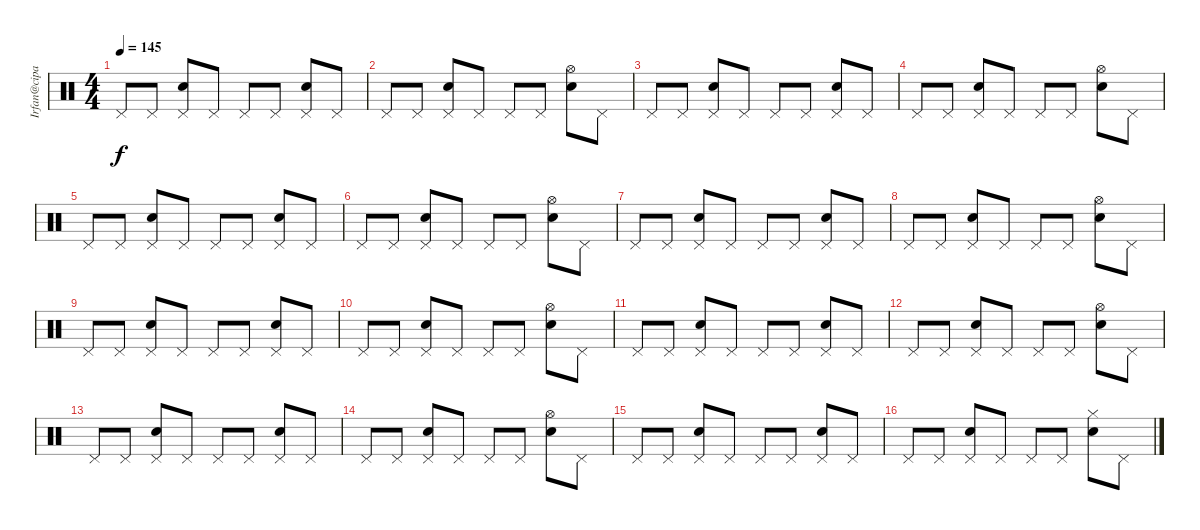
\track ("Irfan@cipan 2" "Irfan@cipa") {instrument percussion}
\staff {score}
\articulation defaults
\ts (4 4)
\tempo 145
\clef neutral
\ks c "Pedal Hi-Hat (hit)".8{dy f} "Pedal Hi-Hat (hit)".8
("Pedal Hi-Hat (hit)" "Electric Snare (hit)").8 "Pedal Hi-Hat (hit)".8 "Pedal Hi-Hat (hit)".8 "Pedal Hi-Hat (hit)".8 ("Pedal Hi-Hat (hit)" "Electric Snare (hit)").8 "Pedal Hi-Hat (hit)".8 |
"Pedal Hi-Hat (hit)".8 "Pedal Hi-Hat (hit)".8 ("Pedal Hi-Hat (hit)" "Electric Snare (hit)").8 "Pedal Hi-Hat (hit)".8 "Pedal Hi-Hat (hit)".8 "Pedal Hi-Hat (hit)".8 ("Hi-Hat (open)" "Electric Snare (hit)").8 "Pedal Hi-Hat (hit)".8 |
"Pedal Hi-Hat (hit)".8 "Pedal Hi-Hat (hit)".8 ("Pedal Hi-Hat (hit)" "Electric Snare (hit)").8 "Pedal Hi-Hat (hit)".8 "Pedal Hi-Hat (hit)".8 "Pedal Hi-Hat (hit)".8 ("Pedal Hi-Hat (hit)" "Electric Snare (hit)").8 "Pedal Hi-Hat (hit)".8 |
"Pedal Hi-Hat (hit)".8 "Pedal Hi-Hat (hit)".8 ("Pedal Hi-Hat (hit)" "Electric Snare (hit)").8 "Pedal Hi-Hat (hit)".8 "Pedal Hi-Hat (hit)".8 "Pedal Hi-Hat (hit)".8 ("Hi-Hat (open)" "Electric Snare (hit)").8 "Pedal Hi-Hat (hit)".8 |
"Pedal Hi-Hat (hit)".8 "Pedal Hi-Hat (hit)".8 ("Pedal Hi-Hat (hit)" "Electric Snare (hit)").8 "Pedal Hi-Hat (hit)".8 "Pedal Hi-Hat (hit)".8 "Pedal Hi-Hat (hit)".8 ("Pedal Hi-Hat (hit)" "Electric Snare (hit)").8 "Pedal Hi-Hat (hit)".8 |
"Pedal Hi-Hat (hit)".8 "Pedal Hi-Hat (hit)".8 ("Pedal Hi-Hat (hit)" "Electric Snare (hit)").8 "Pedal Hi-Hat (hit)".8 "Pedal Hi-Hat (hit)".8 "Pedal Hi-Hat (hit)".8 ("Hi-Hat (open)" "Electric Snare (hit)").8 "Pedal Hi-Hat (hit)".8 |
"Pedal Hi-Hat (hit)".8 "Pedal Hi-Hat (hit)".8 ("Pedal Hi-Hat (hit)" "Electric Snare (hit)").8 "Pedal Hi-Hat (hit)".8 "Pedal Hi-Hat (hit)".8 "Pedal Hi-Hat (hit)".8 ("Pedal Hi-Hat (hit)" "Electric Snare (hit)").8 "Pedal Hi-Hat (hit)".8 |
"Pedal Hi-Hat (hit)".8 "Pedal Hi-Hat (hit)".8 ("Pedal Hi-Hat (hit)" "Electric Snare (hit)").8 "Pedal Hi-Hat (hit)".8 "Pedal Hi-Hat (hit)".8 "Pedal Hi-Hat (hit)".8 ("Hi-Hat (open)" "Electric Snare (hit)").8 "Pedal Hi-Hat (hit)".8 |
"Pedal Hi-Hat (hit)".8 "Pedal Hi-Hat (hit)".8 ("Pedal Hi-Hat (hit)" "Electric Snare (hit)").8 "Pedal Hi-Hat (hit)".8 "Pedal Hi-Hat (hit)".8 "Pedal Hi-Hat (hit)".8 ("Pedal Hi-Hat (hit)" "Electric Snare (hit)").8 "Pedal Hi-Hat (hit)".8 |
"Pedal Hi-Hat (hit)".8 "Pedal Hi-Hat (hit)".8 ("Pedal Hi-Hat (hit)" "Electric Snare (hit)").8 "Pedal Hi-Hat (hit)".8 "Pedal Hi-Hat (hit)".8 "Pedal Hi-Hat (hit)".8 ("Hi-Hat (open)" "Electric Snare (hit)").8 "Pedal Hi-Hat (hit)".8 |
"Pedal Hi-Hat (hit)".8 "Pedal Hi-Hat (hit)".8 ("Pedal Hi-Hat (hit)" "Electric Snare (hit)").8 "Pedal Hi-Hat (hit)".8 "Pedal Hi-Hat (hit)".8 "Pedal Hi-Hat (hit)".8 ("Pedal Hi-Hat (hit)" "Electric Snare (hit)").8 "Pedal Hi-Hat (hit)".8 |
"Pedal Hi-Hat (hit)".8 "Pedal Hi-Hat (hit)".8 ("Pedal Hi-Hat (hit)" "Electric Snare (hit)").8 "Pedal Hi-Hat (hit)".8 "Pedal Hi-Hat (hit)".8 "Pedal Hi-Hat (hit)".8 ("Hi-Hat (open)" "Electric Snare (hit)").8 "Pedal Hi-Hat (hit)".8 |
"Pedal Hi-Hat (hit)".8 "Pedal Hi-Hat (hit)".8 ("Pedal Hi-Hat (hit)" "Electric Snare (hit)").8 "Pedal Hi-Hat (hit)".8 "Pedal Hi-Hat (hit)".8 "Pedal Hi-Hat (hit)".8 ("Pedal Hi-Hat (hit)" "Electric Snare (hit)").8 "Pedal Hi-Hat (hit)".8 |
"Pedal Hi-Hat (hit)".8 "Pedal Hi-Hat (hit)".8 ("Pedal Hi-Hat (hit)" "Electric Snare (hit)").8 "Pedal Hi-Hat (hit)".8 "Pedal Hi-Hat (hit)".8 "Pedal Hi-Hat (hit)".8 ("Hi-Hat (open)" "Electric Snare (hit)").8 "Pedal Hi-Hat (hit)".8 |
"Pedal Hi-Hat (hit)".8 "Pedal Hi-Hat (hit)".8 ("Pedal Hi-Hat (hit)" "Electric Snare (hit)").8 "Pedal Hi-Hat (hit)".8 "Pedal Hi-Hat (hit)".8 "Pedal Hi-Hat (hit)".8 ("Pedal Hi-Hat (hit)" "Electric Snare (hit)").8 "Pedal Hi-Hat (hit)".8 |
"Pedal Hi-Hat (hit)".8 "Pedal Hi-Hat (hit)".8 ("Pedal Hi-Hat (hit)" "Electric Snare (hit)").8 "Pedal Hi-Hat (hit)".8 "Pedal Hi-Hat (hit)".8 "Pedal Hi-Hat (hit)".8 ("Hi-Hat (closed)" "Electric Snare (hit)").8 "Pedal Hi-Hat (hit)".8
